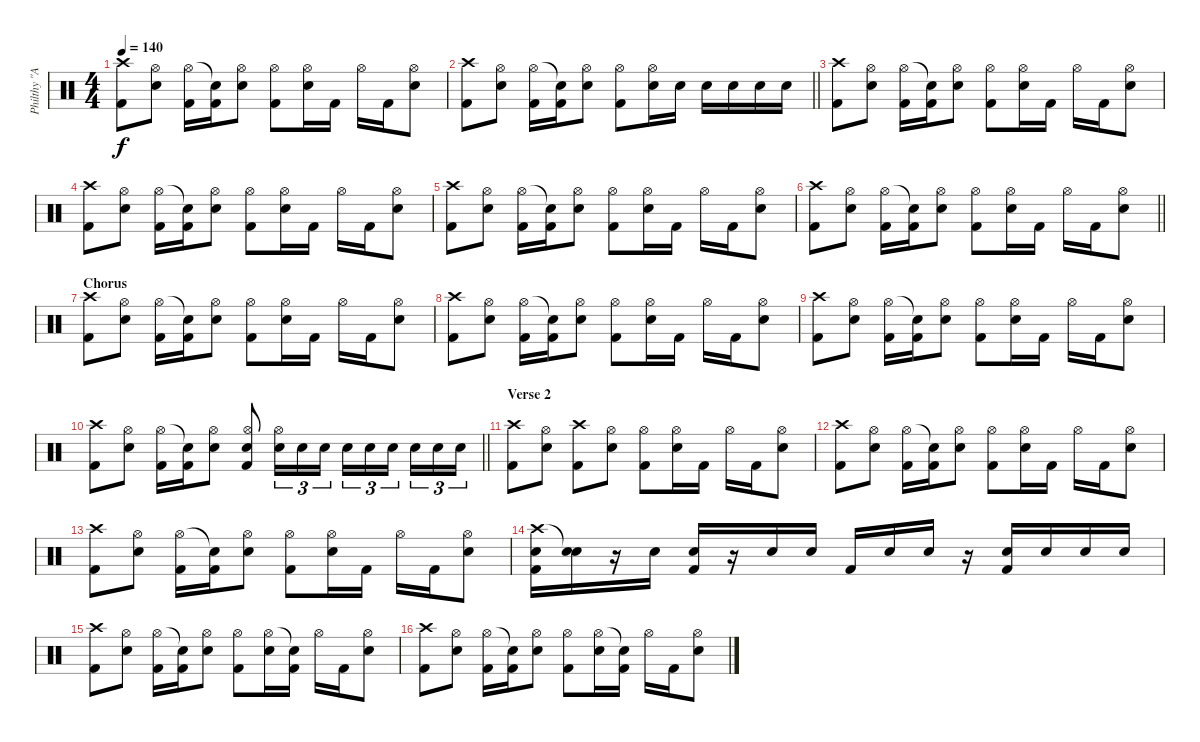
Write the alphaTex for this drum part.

\track ("Philthy \"Animal\" Taylor (drums)" "Philthy \"A") {instrument percussion}
\staff {score}
\articulation defaults
\ts (4 4)
\tempo 140
\clef neutral
\ks c
("Crash high (hit)" "Kick (hit) 2").8{dy f} ("Hi-Hat (open)" "Electric Snare (hit)").8 ("Hi-Hat (open)" "Kick (hit) 2").16 ("Snare (hit)"{t} "Kick (hit) 2").16 ("Hi-Hat (open)" "Electric Snare (hit)").8 ("Hi-Hat (open)" "Kick (hit) 2").8 ("Hi-Hat (open)" "Electric Snare (hit)").16 "Kick (hit) 2".16 "Hi-Hat (open)".16 "Kick (hit) 2".16 ("Hi-Hat (open)" "Electric Snare (hit)").8 |
\barLineRight lightlight
("Crash high (hit)" "Kick (hit) 2").8 ("Hi-Hat (open)" "Electric Snare (hit)").8 ("Hi-Hat (open)" "Kick (hit) 2").16 ("Snare (hit)"{t} "Kick (hit) 2").16 ("Hi-Hat (open)" "Electric Snare (hit)").8 ("Hi-Hat (open)" "Kick (hit) 2").8 ("Hi-Hat (open)" "Electric Snare (hit)").16 "Electric Snare (hit)".16 "Electric Snare (hit)".16 "Electric Snare (hit)".16 "Electric Snare (hit)".16 "Electric Snare (hit)".16 |
("Crash high (hit)" "Kick (hit) 2").8 ("Hi-Hat (open)" "Electric Snare (hit)").8 ("Hi-Hat (open)" "Kick (hit) 2").16 ("Snare (hit)"{t} "Kick (hit) 2").16 ("Hi-Hat (open)" "Electric Snare (hit)").8 ("Hi-Hat (open)" "Kick (hit) 2").8 ("Hi-Hat (open)" "Electric Snare (hit)").16 "Kick (hit) 2".16 "Hi-Hat (open)".16 "Kick (hit) 2".16 ("Hi-Hat (open)" "Electric Snare (hit)").8 |
("Crash high (hit)" "Kick (hit) 2").8 ("Hi-Hat (open)" "Electric Snare (hit)").8 ("Hi-Hat (open)" "Kick (hit) 2").16 ("Snare (hit)"{t} "Kick (hit) 2").16 ("Hi-Hat (open)" "Electric Snare (hit)").8 ("Hi-Hat (open)" "Kick (hit) 2").8 ("Hi-Hat (open)" "Electric Snare (hit)").16 "Kick (hit) 2".16 "Hi-Hat (open)".16 "Kick (hit) 2".16 ("Hi-Hat (open)" "Electric Snare (hit)").8 |
("Crash high (hit)" "Kick (hit) 2").8 ("Hi-Hat (open)" "Electric Snare (hit)").8 ("Hi-Hat (open)" "Kick (hit) 2").16 ("Snare (hit)"{t} "Kick (hit) 2").16 ("Hi-Hat (open)" "Electric Snare (hit)").8 ("Hi-Hat (open)" "Kick (hit) 2").8 ("Hi-Hat (open)" "Electric Snare (hit)").16 "Kick (hit) 2".16 "Hi-Hat (open)".16 "Kick (hit) 2".16 ("Hi-Hat (open)" "Electric Snare (hit)").8 |
\barLineRight lightlight
("Crash high (hit)" "Kick (hit) 2").8 ("Hi-Hat (open)" "Electric Snare (hit)").8 ("Hi-Hat (open)" "Kick (hit) 2").16 ("Snare (hit)"{t} "Kick (hit) 2").16 ("Hi-Hat (open)" "Electric Snare (hit)").8 ("Hi-Hat (open)" "Kick (hit) 2").8 ("Hi-Hat (open)" "Electric Snare (hit)").16 "Kick (hit) 2".16 "Hi-Hat (open)".16 "Kick (hit) 2".16 ("Hi-Hat (open)" "Electric Snare (hit)").8 |
\section ("" "Chorus")
("Crash high (hit)" "Kick (hit) 2").8 ("Hi-Hat (open)" "Electric Snare (hit)").8 ("Hi-Hat (open)" "Kick (hit) 2").16 ("Snare (hit)"{t} "Kick (hit) 2").16 ("Hi-Hat (open)" "Electric Snare (hit)").8 ("Hi-Hat (open)" "Kick (hit) 2").8 ("Hi-Hat (open)" "Electric Snare (hit)").16 "Kick (hit) 2".16 "Hi-Hat (open)".16 "Kick (hit) 2".16 ("Hi-Hat (open)" "Electric Snare (hit)").8 |
("Crash high (hit)" "Kick (hit) 2").8 ("Hi-Hat (open)" "Electric Snare (hit)").8 ("Hi-Hat (open)" "Kick (hit) 2").16 ("Snare (hit)"{t} "Kick (hit) 2").16 ("Hi-Hat (open)" "Electric Snare (hit)").8 ("Hi-Hat (open)" "Kick (hit) 2").8 ("Hi-Hat (open)" "Electric Snare (hit)").16 "Kick (hit) 2".16 "Hi-Hat (open)".16 "Kick (hit) 2".16 ("Hi-Hat (open)" "Electric Snare (hit)").8 |
("Crash high (hit)" "Kick (hit) 2").8 ("Hi-Hat (open)" "Electric Snare (hit)").8 ("Hi-Hat (open)" "Kick (hit) 2").16 ("Snare (hit)"{t} "Kick (hit) 2").16 ("Hi-Hat (open)" "Electric Snare (hit)").8 ("Hi-Hat (open)" "Kick (hit) 2").8 ("Hi-Hat (open)" "Electric Snare (hit)").16 "Kick (hit) 2".16 "Hi-Hat (open)".16 "Kick (hit) 2".16 ("Hi-Hat (open)" "Electric Snare (hit)").8 |
\barLineRight lightlight
("Crash high (hit)" "Kick (hit) 2").8 ("Hi-Hat (open)" "Electric Snare (hit)").8 ("Hi-Hat (open)" "Kick (hit) 2").16 ("Snare (hit)"{t} "Kick (hit) 2").16 ("Hi-Hat (open)" "Electric Snare (hit)").8 ("Hi-Hat (open)" "Electric Snare (hit)" "Kick (hit) 2").8 ("Hi-Hat (open)" "Electric Snare (hit)").16{tu (3 2)} "Electric Snare (hit)".16{tu (3 2)} "Electric Snare (hit)".16{tu (3 2)} "Electric Snare (hit)".16{tu (3 2)} "Electric Snare (hit)".16{tu (3 2)} "Electric Snare (hit)".16{tu (3 2) beam splitsecondary} "Electric Snare (hit)".16{tu (3 2)} "Electric Snare (hit)".16{tu (3 2)} "Electric Snare (hit)".16{tu (3 2)} |
\section ("" "Verse 2")
("Crash high (hit)" "Kick (hit) 2").8 ("Hi-Hat (open)" "Electric Snare (hit)").8 ("Crash high (hit)" "Kick (hit) 2").8 ("Hi-Hat (open)" "Electric Snare (hit)").8 ("Hi-Hat (open)" "Kick (hit) 2").8 ("Hi-Hat (open)" "Electric Snare (hit)").16 "Kick (hit) 2".16 "Hi-Hat (open)".16 "Kick (hit) 2".16 ("Hi-Hat (open)" "Electric Snare (hit)").8 |
("Crash high (hit)" "Kick (hit) 2").8 ("Hi-Hat (open)" "Electric Snare (hit)").8 ("Hi-Hat (open)" "Kick (hit) 2").16 ("Snare (hit)"{t} "Kick (hit) 2").16 ("Hi-Hat (open)" "Electric Snare (hit)").8 ("Hi-Hat (open)" "Kick (hit) 2").8 ("Hi-Hat (open)" "Electric Snare (hit)").16 "Kick (hit) 2".16 "Hi-Hat (open)".16 "Kick (hit) 2".16 ("Hi-Hat (open)" "Electric Snare (hit)").8 |
("Crash high (hit)" "Kick (hit) 2").8 ("Hi-Hat (open)" "Electric Snare (hit)").8 ("Hi-Hat (open)" "Kick (hit) 2").16 ("Snare (hit)"{t} "Kick (hit) 2").16 ("Hi-Hat (open)" "Electric Snare (hit)").8 ("Hi-Hat (open)" "Kick (hit) 2").8 ("Hi-Hat (open)" "Electric Snare (hit)").16 "Kick (hit) 2".16 "Hi-Hat (open)".16 "Kick (hit) 2".16 ("Hi-Hat (open)" "Electric Snare (hit)").8 |
("Crash high (hit)" "Electric Snare (hit)" "Kick (hit) 2").16 ("Snare (hit)"{t} "Electric Snare (hit)").16 r.16 "Electric Snare (hit)".16 ("Electric Snare (hit)" "Kick (hit) 2").16 r.16 "Electric Snare (hit)".16 "Electric Snare (hit)".16 "Kick (hit) 2".16 "Electric Snare (hit)".16 "Electric Snare (hit)".16 r.16 ("Electric Snare (hit)" "Kick (hit) 2").16 "Electric Snare (hit)".16 "Electric Snare (hit)".16 "Electric Snare (hit)".16 |
("Crash high (hit)" "Kick (hit) 2").8 ("Hi-Hat (open)" "Electric Snare (hit)").8 ("Hi-Hat (open)" "Kick (hit) 2").16 ("Snare (hit)"{t} "Kick (hit) 2").16 ("Hi-Hat (open)" "Electric Snare (hit)").8 ("Hi-Hat (open)" "Kick (hit) 2").8 ("Hi-Hat (open)" "Electric Snare (hit)").16 ("Snare (hit)"{t} "Kick (hit) 2").16 "Hi-Hat (open)".16 "Kick (hit) 2".16 ("Hi-Hat (open)" "Electric Snare (hit)").8 |
("Crash high (hit)" "Kick (hit) 2").8 ("Hi-Hat (open)" "Electric Snare (hit)").8 ("Hi-Hat (open)" "Kick (hit) 2").16 ("Snare (hit)"{t} "Kick (hit) 2").16 ("Hi-Hat (open)" "Electric Snare (hit)").8 ("Hi-Hat (open)" "Kick (hit) 2").8 ("Hi-Hat (open)" "Electric Snare (hit)").16 ("Snare (hit)"{t} "Kick (hit) 2").16 "Hi-Hat (open)".16 "Kick (hit) 2".16 ("Hi-Hat (open)" "Electric Snare (hit)").8
